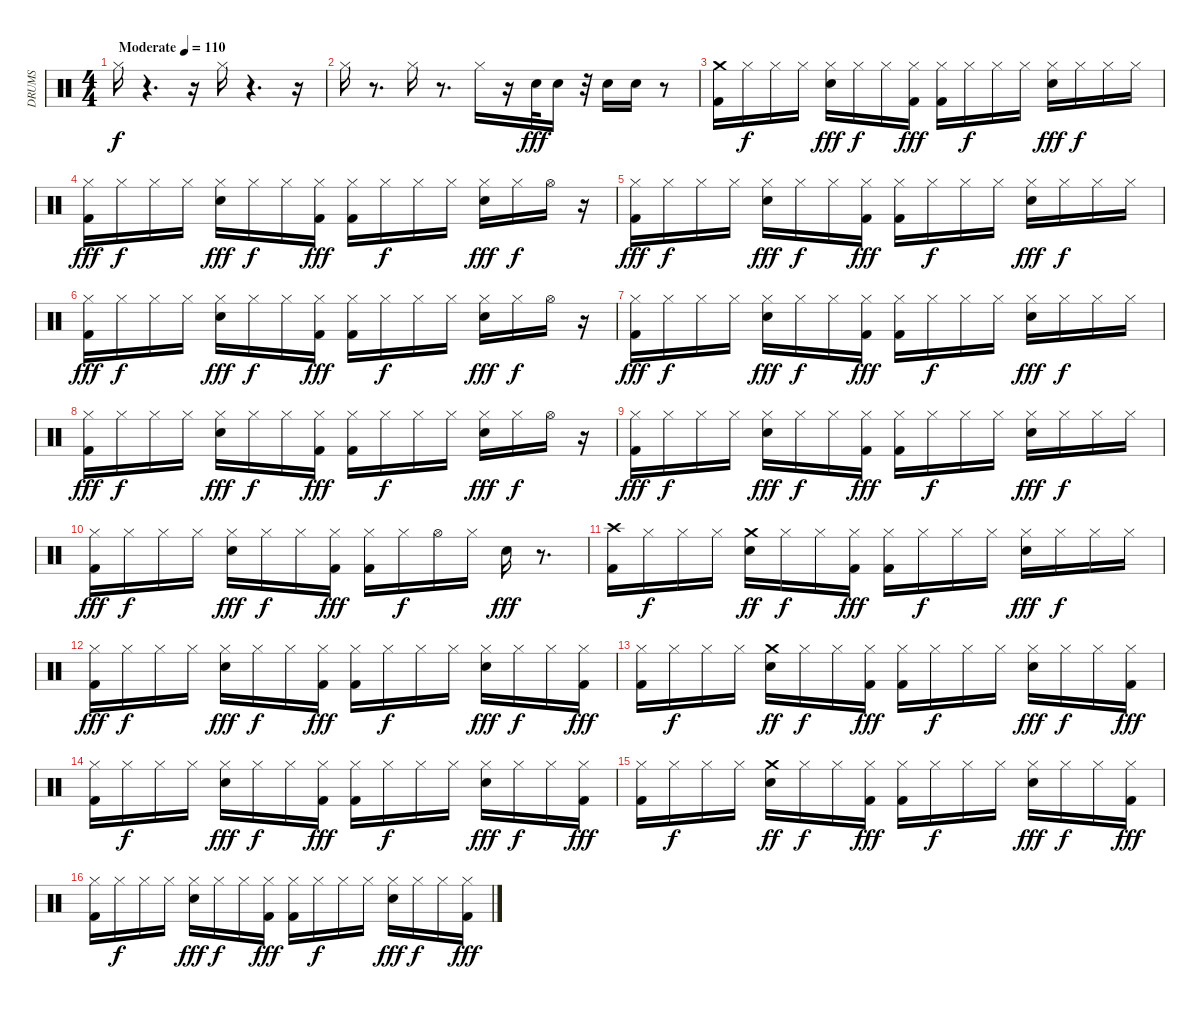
\track ("DRUMS" "DRUMS") {solo instrument percussion}
\staff {score}
\articulation defaults
\ts (4 4)
\tempo (110 "Moderate")
\clef neutral
\ks c "Hi-Hat (closed)".16{dy f}
r.4{d} r.16 "Hi-Hat (closed)".16 r.4{d} r.16 |
"Hi-Hat (closed)".16 r.8{d} "Hi-Hat (closed)".16 r.8{d} "Hi-Hat (closed)".16 r.16 "Electric Snare (hit)".32{dy fff} "Electric Snare (hit)".16 r.32 "Electric Snare (hit)".16 "Electric Snare (hit)".16 r.8 |
("Crash medium (hit)" "Kick (hit) 2").16 "Hi-Hat (closed)".16{dy f} "Hi-Hat (closed)".16 "Hi-Hat (closed)".16 ("Electric Snare (hit)" "Hi-Hat (closed)").16{dy fff} "Hi-Hat (closed)".16{dy f} "Hi-Hat (closed)".16 ("Hi-Hat (closed)" "Kick (hit) 2").16{dy fff} ("Kick (hit) 2" "Hi-Hat (closed)").16 "Hi-Hat (closed)".16{dy f} "Hi-Hat (closed)".16 "Hi-Hat (closed)".16 ("Electric Snare (hit)" "Hi-Hat (closed)").16{dy fff} "Hi-Hat (closed)".16{dy f} "Hi-Hat (closed)".16 "Hi-Hat (closed)".16 |
("Kick (hit) 2" "Hi-Hat (closed)").16{dy fff} "Hi-Hat (closed)".16{dy f} "Hi-Hat (closed)".16 "Hi-Hat (closed)".16 ("Electric Snare (hit)" "Hi-Hat (closed)").16{dy fff} "Hi-Hat (closed)".16{dy f} "Hi-Hat (closed)".16 ("Hi-Hat (closed)" "Kick (hit) 2").16{dy fff} ("Kick (hit) 2" "Hi-Hat (closed)").16 "Hi-Hat (closed)".16{dy f} "Hi-Hat (closed)".16 "Hi-Hat (closed)".16 ("Electric Snare (hit)" "Hi-Hat (closed)").16{dy fff} "Hi-Hat (closed)".16{dy f} "Hi-Hat (open)".16 r.16 |
("Hi-Hat (closed)" "Kick (hit) 2").16{dy fff} "Hi-Hat (closed)".16{dy f} "Hi-Hat (closed)".16 "Hi-Hat (closed)".16 ("Electric Snare (hit)" "Hi-Hat (closed)").16{dy fff} "Hi-Hat (closed)".16{dy f} "Hi-Hat (closed)".16 ("Hi-Hat (closed)" "Kick (hit) 2").16{dy fff} ("Kick (hit) 2" "Hi-Hat (closed)").16 "Hi-Hat (closed)".16{dy f} "Hi-Hat (closed)".16 "Hi-Hat (closed)".16 ("Electric Snare (hit)" "Hi-Hat (closed)").16{dy fff} "Hi-Hat (closed)".16{dy f} "Hi-Hat (closed)".16 "Hi-Hat (closed)".16 |
("Kick (hit) 2" "Hi-Hat (closed)").16{dy fff} "Hi-Hat (closed)".16{dy f} "Hi-Hat (closed)".16 "Hi-Hat (closed)".16 ("Electric Snare (hit)" "Hi-Hat (closed)").16{dy fff} "Hi-Hat (closed)".16{dy f} "Hi-Hat (closed)".16 ("Hi-Hat (closed)" "Kick (hit) 2").16{dy fff} ("Kick (hit) 2" "Hi-Hat (closed)").16 "Hi-Hat (closed)".16{dy f} "Hi-Hat (closed)".16 "Hi-Hat (closed)".16 ("Electric Snare (hit)" "Hi-Hat (closed)").16{dy fff} "Hi-Hat (closed)".16{dy f} "Hi-Hat (open)".16 r.16 |
("Hi-Hat (closed)" "Kick (hit) 2").16{dy fff} "Hi-Hat (closed)".16{dy f} "Hi-Hat (closed)".16 "Hi-Hat (closed)".16 ("Electric Snare (hit)" "Hi-Hat (closed)").16{dy fff} "Hi-Hat (closed)".16{dy f} "Hi-Hat (closed)".16 ("Hi-Hat (closed)" "Kick (hit) 2").16{dy fff} ("Kick (hit) 2" "Hi-Hat (closed)").16 "Hi-Hat (closed)".16{dy f} "Hi-Hat (closed)".16 "Hi-Hat (closed)".16 ("Electric Snare (hit)" "Hi-Hat (closed)").16{dy fff} "Hi-Hat (closed)".16{dy f} "Hi-Hat (closed)".16 "Hi-Hat (closed)".16 |
("Kick (hit) 2" "Hi-Hat (closed)").16{dy fff} "Hi-Hat (closed)".16{dy f} "Hi-Hat (closed)".16 "Hi-Hat (closed)".16 ("Electric Snare (hit)" "Hi-Hat (closed)").16{dy fff} "Hi-Hat (closed)".16{dy f} "Hi-Hat (closed)".16 ("Hi-Hat (closed)" "Kick (hit) 2").16{dy fff} ("Kick (hit) 2" "Hi-Hat (closed)").16 "Hi-Hat (closed)".16{dy f} "Hi-Hat (closed)".16 "Hi-Hat (closed)".16 ("Electric Snare (hit)" "Hi-Hat (closed)").16{dy fff} "Hi-Hat (closed)".16{dy f} "Hi-Hat (open)".16 r.16 |
("Hi-Hat (closed)" "Kick (hit) 2").16{dy fff} "Hi-Hat (closed)".16{dy f} "Hi-Hat (closed)".16 "Hi-Hat (closed)".16 ("Electric Snare (hit)" "Hi-Hat (closed)").16{dy fff} "Hi-Hat (closed)".16{dy f} "Hi-Hat (closed)".16 ("Hi-Hat (closed)" "Kick (hit) 2").16{dy fff} ("Kick (hit) 2" "Hi-Hat (closed)").16 "Hi-Hat (closed)".16{dy f} "Hi-Hat (closed)".16 "Hi-Hat (closed)".16 ("Electric Snare (hit)" "Hi-Hat (closed)").16{dy fff} "Hi-Hat (closed)".16{dy f} "Hi-Hat (closed)".16 "Hi-Hat (closed)".16 |
("Kick (hit) 2" "Hi-Hat (closed)").16{dy fff} "Hi-Hat (closed)".16{dy f} "Hi-Hat (closed)".16 "Hi-Hat (closed)".16 ("Electric Snare (hit)" "Hi-Hat (closed)").16{dy fff} "Hi-Hat (closed)".16{dy f} "Hi-Hat (closed)".16 ("Hi-Hat (closed)" "Kick (hit) 2").16{dy fff} ("Kick (hit) 2" "Hi-Hat (closed)").16 "Hi-Hat (closed)".16{dy f} "Hi-Hat (open)".16 "Hi-Hat (closed)".16 "Electric Snare (hit)".16{dy fff} r.8{d} |
("Crash high (hit)" "Kick (hit) 2").16 "Hi-Hat (closed)".16{dy f} "Hi-Hat (closed)".16 "Hi-Hat (closed)".16 ("Electric Snare (hit)" "Crash medium (hit)").16{dy ff} "Hi-Hat (closed)".16{dy f} "Hi-Hat (closed)".16 ("Hi-Hat (closed)" "Kick (hit) 2").16{dy fff} ("Kick (hit) 2" "Hi-Hat (closed)").16 "Hi-Hat (closed)".16{dy f} "Hi-Hat (closed)".16 "Hi-Hat (closed)".16 ("Electric Snare (hit)" "Hi-Hat (closed)").16{dy fff} "Hi-Hat (closed)".16{dy f} "Hi-Hat (closed)".16 "Hi-Hat (closed)".16 |
("Kick (hit) 2" "Hi-Hat (closed)").16{dy fff} "Hi-Hat (closed)".16{dy f} "Hi-Hat (closed)".16 "Hi-Hat (closed)".16 ("Electric Snare (hit)" "Hi-Hat (closed)").16{dy fff} "Hi-Hat (closed)".16{dy f} "Hi-Hat (closed)".16 ("Hi-Hat (closed)" "Kick (hit) 2").16{dy fff} ("Kick (hit) 2" "Hi-Hat (closed)").16 "Hi-Hat (closed)".16{dy f} "Hi-Hat (closed)".16 "Hi-Hat (closed)".16 ("Electric Snare (hit)" "Hi-Hat (closed)").16{dy fff} "Hi-Hat (closed)".16{dy f} "Hi-Hat (closed)".16 ("Hi-Hat (closed)" "Kick (hit) 2").16{dy fff} |
("Hi-Hat (closed)" "Kick (hit) 2").16 "Hi-Hat (closed)".16{dy f} "Hi-Hat (closed)".16 "Hi-Hat (closed)".16 ("Electric Snare (hit)" "Crash medium (hit)").16{dy ff} "Hi-Hat (closed)".16{dy f} "Hi-Hat (closed)".16 ("Hi-Hat (closed)" "Kick (hit) 2").16{dy fff} ("Kick (hit) 2" "Hi-Hat (closed)").16 "Hi-Hat (closed)".16{dy f} "Hi-Hat (closed)".16 "Hi-Hat (closed)".16 ("Electric Snare (hit)" "Hi-Hat (closed)").16{dy fff} "Hi-Hat (closed)".16{dy f} "Hi-Hat (closed)".16 ("Hi-Hat (closed)" "Kick (hit) 2").16{dy fff} |
("Kick (hit) 2" "Hi-Hat (closed)").16 "Hi-Hat (closed)".16{dy f} "Hi-Hat (closed)".16 "Hi-Hat (closed)".16 ("Electric Snare (hit)" "Hi-Hat (closed)").16{dy fff} "Hi-Hat (closed)".16{dy f} "Hi-Hat (closed)".16 ("Hi-Hat (closed)" "Kick (hit) 2").16{dy fff} ("Kick (hit) 2" "Hi-Hat (closed)").16 "Hi-Hat (closed)".16{dy f} "Hi-Hat (closed)".16 "Hi-Hat (closed)".16 ("Electric Snare (hit)" "Hi-Hat (closed)").16{dy fff} "Hi-Hat (closed)".16{dy f} "Hi-Hat (closed)".16 ("Hi-Hat (closed)" "Kick (hit) 2").16{dy fff} |
("Hi-Hat (closed)" "Kick (hit) 2").16 "Hi-Hat (closed)".16{dy f} "Hi-Hat (closed)".16 "Hi-Hat (closed)".16 ("Electric Snare (hit)" "Crash medium (hit)").16{dy ff} "Hi-Hat (closed)".16{dy f} "Hi-Hat (closed)".16 ("Hi-Hat (closed)" "Kick (hit) 2").16{dy fff} ("Kick (hit) 2" "Hi-Hat (closed)").16 "Hi-Hat (closed)".16{dy f} "Hi-Hat (closed)".16 "Hi-Hat (closed)".16 ("Electric Snare (hit)" "Hi-Hat (closed)").16{dy fff} "Hi-Hat (closed)".16{dy f} "Hi-Hat (closed)".16 ("Hi-Hat (closed)" "Kick (hit) 2").16{dy fff} |
("Kick (hit) 2" "Hi-Hat (closed)").16 "Hi-Hat (closed)".16{dy f} "Hi-Hat (closed)".16 "Hi-Hat (closed)".16 ("Electric Snare (hit)" "Hi-Hat (closed)").16{dy fff} "Hi-Hat (closed)".16{dy f} "Hi-Hat (closed)".16 ("Hi-Hat (closed)" "Kick (hit) 2").16{dy fff} ("Kick (hit) 2" "Hi-Hat (closed)").16 "Hi-Hat (closed)".16{dy f} "Hi-Hat (closed)".16 "Hi-Hat (closed)".16 ("Electric Snare (hit)" "Hi-Hat (closed)").16{dy fff} "Hi-Hat (closed)".16{dy f} "Hi-Hat (closed)".16 ("Hi-Hat (closed)" "Kick (hit) 2").16{dy fff}
